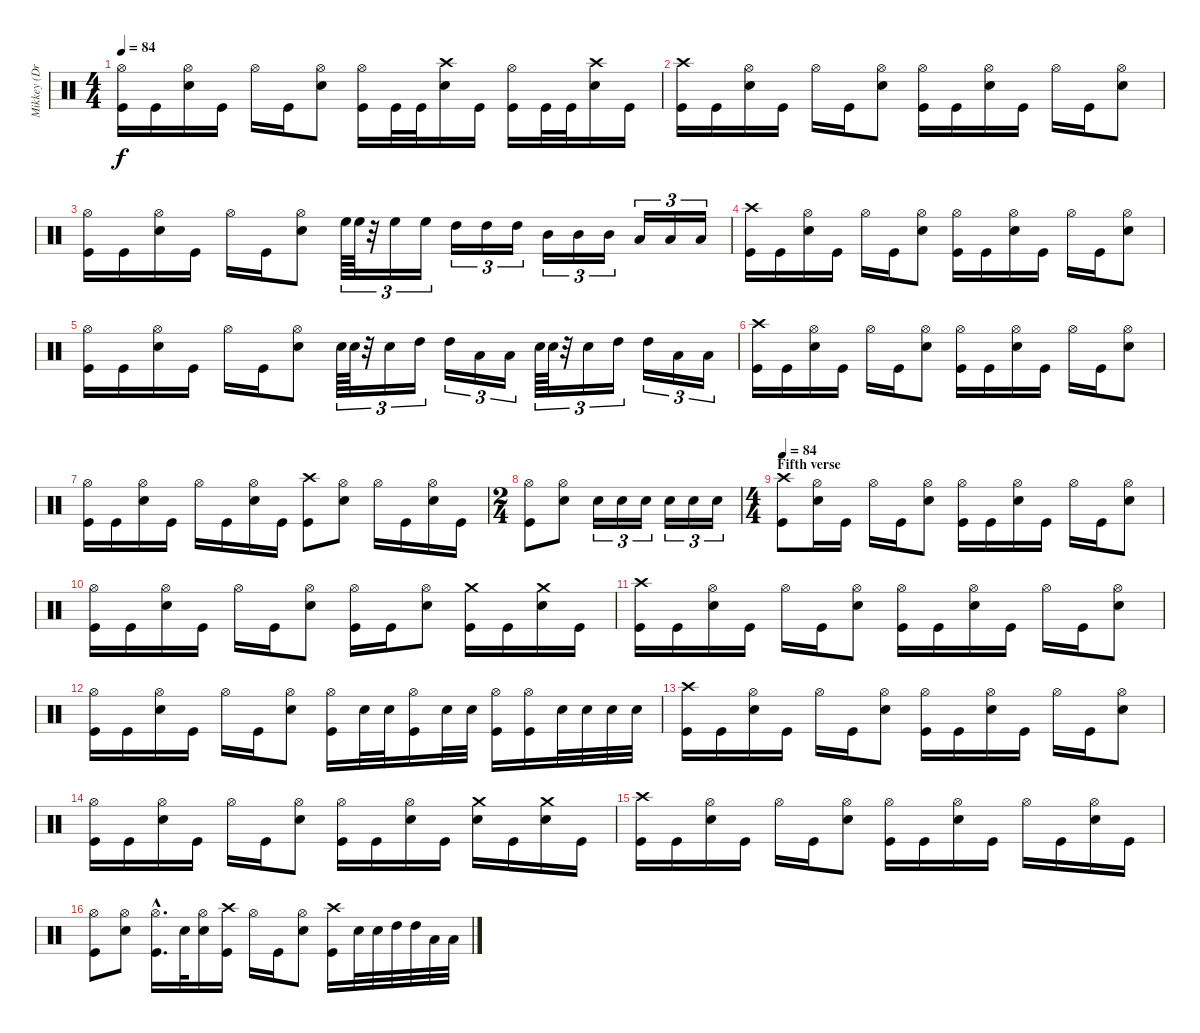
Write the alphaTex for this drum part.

\track ("Mikkey (Drums)" "Mikkey (Dr") {instrument percussion}
\staff {score}
\articulation defaults
\ts (4 4)
\tempo 84
\clef neutral
\ks c
("Hi-Hat (open)" "Kick (hit)").16{dy f} "Kick (hit)".16 ("Hi-Hat (open)" "Electric Snare (hit)").16 "Kick (hit)".16 "Hi-Hat (open)".16 "Kick (hit)".16 ("Hi-Hat (open)" "Electric Snare (hit)").8 ("Hi-Hat (open)" "Kick (hit)").16 "Kick (hit)".32 "Kick (hit)".32 ("Crash high (hit)" "Electric Snare (hit)").16 "Kick (hit)".16 ("Hi-Hat (open)" "Kick (hit)").16 "Kick (hit)".32 "Kick (hit)".32 ("Crash high (hit)" "Electric Snare (hit)").16 "Kick (hit)".16 |
("Crash high (hit)" "Kick (hit)").16 "Kick (hit)".16 ("Hi-Hat (open)" "Electric Snare (hit)").16 "Kick (hit)".16 "Hi-Hat (open)".16 "Kick (hit)".16 ("Hi-Hat (open)" "Electric Snare (hit)").8 ("Hi-Hat (open)" "Kick (hit)").16 "Kick (hit)".16 ("Hi-Hat (open)" "Electric Snare (hit)").16 "Kick (hit)".16 "Hi-Hat (open)".16 "Kick (hit)".16 ("Hi-Hat (open)" "Electric Snare (hit)").8 |
("Hi-Hat (open)" "Kick (hit)").16 "Kick (hit)".16 ("Hi-Hat (open)" "Electric Snare (hit)").16 "Kick (hit)".16 "Hi-Hat (open)".16 "Kick (hit)".16 ("Hi-Hat (open)" "Electric Snare (hit)").8 "High Floor Tom (hit)".64{tu (3 2)} "High Floor Tom (hit)".64{tu (3 2)} r.32{tu (3 2)} "High Floor Tom (hit)".16{tu (3 2)} "High Floor Tom (hit)".16{tu (3 2)} "High Tom (hit)".16{tu (3 2)} "High Tom (hit)".16{tu (3 2)} "High Tom (hit)".16{tu (3 2)} "Mid Tom (hit)".16{tu (3 2)} "Mid Tom (hit)".16{tu (3 2)} "Mid Tom (hit)".16{tu (3 2)} "Low Tom (hit)".16{tu (3 2)} "Low Tom (hit)".16{tu (3 2)} "Low Tom (hit)".16{tu (3 2)} |
("Crash high (hit)" "Kick (hit)").16 "Kick (hit)".16 ("Hi-Hat (open)" "Electric Snare (hit)").16 "Kick (hit)".16 "Hi-Hat (open)".16 "Kick (hit)".16 ("Hi-Hat (open)" "Electric Snare (hit)").8 ("Hi-Hat (open)" "Kick (hit)").16 "Kick (hit)".16 ("Hi-Hat (open)" "Electric Snare (hit)").16 "Kick (hit)".16 "Hi-Hat (open)".16 "Kick (hit)".16 ("Hi-Hat (open)" "Electric Snare (hit)").8 |
("Hi-Hat (open)" "Kick (hit)").16 "Kick (hit)".16 ("Hi-Hat (open)" "Electric Snare (hit)").16 "Kick (hit)".16 "Hi-Hat (open)".16 "Kick (hit)".16 ("Hi-Hat (open)" "Electric Snare (hit)").8 "Electric Snare (hit)".64{tu (3 2)} "Electric Snare (hit)".64{tu (3 2)} r.32{tu (3 2)} "Electric Snare (hit)".16{tu (3 2)} "High Tom (hit)".16{tu (3 2)} "High Tom (hit)".16{tu (3 2)} "Low Tom (hit)".16{tu (3 2)} "Low Tom (hit)".16{tu (3 2)} "Electric Snare (hit)".64{tu (3 2)} "Electric Snare (hit)".64{tu (3 2)} r.32{tu (3 2)} "Electric Snare (hit)".16{tu (3 2)} "High Tom (hit)".16{tu (3 2)} "High Tom (hit)".16{tu (3 2)} "Low Tom (hit)".16{tu (3 2)} "Low Tom (hit)".16{tu (3 2)} |
("Crash high (hit)" "Kick (hit)").16 "Kick (hit)".16 ("Hi-Hat (open)" "Electric Snare (hit)").16 "Kick (hit)".16 "Hi-Hat (open)".16 "Kick (hit)".16 ("Hi-Hat (open)" "Electric Snare (hit)").8 ("Hi-Hat (open)" "Kick (hit)").16 "Kick (hit)".16 ("Hi-Hat (open)" "Electric Snare (hit)").16 "Kick (hit)".16 "Hi-Hat (open)".16 "Kick (hit)".16 ("Hi-Hat (open)" "Electric Snare (hit)").8 |
("Hi-Hat (open)" "Kick (hit)").16 "Kick (hit)".16 ("Hi-Hat (open)" "Electric Snare (hit)").16 "Kick (hit)".16 "Hi-Hat (open)".16 "Kick (hit)".16 ("Hi-Hat (open)" "Electric Snare (hit)").16 "Kick (hit)".16 ("Crash high (hit)" "Kick (hit)").8 ("Hi-Hat (open)" "Electric Snare (hit)").8 "Hi-Hat (open)".16 "Kick (hit)".16 ("Hi-Hat (open)" "Electric Snare (hit)").16 "Kick (hit)".16 |
\ts (2 4)
("Hi-Hat (open)" "Kick (hit)").8 ("Hi-Hat (open)" "Electric Snare (hit)").8 "Electric Snare (hit)".16{tu (3 2)} "Electric Snare (hit)".16{tu (3 2)} "Electric Snare (hit)".16{tu (3 2)} "Electric Snare (hit)".16{tu (3 2)} "Electric Snare (hit)".16{tu (3 2)} "Electric Snare (hit)".16{tu (3 2)} |
\ts (4 4)
\section ("" "Fifth verse")
\tempo 84
("Crash high (hit)" "Kick (hit)").8 ("Hi-Hat (open)" "Electric Snare (hit)").16 "Kick (hit)".16 "Hi-Hat (open)".16 "Kick (hit)".16 ("Hi-Hat (open)" "Electric Snare (hit)").8 ("Hi-Hat (open)" "Kick (hit)").16 "Kick (hit)".16 ("Hi-Hat (open)" "Electric Snare (hit)").16 "Kick (hit)".16 "Hi-Hat (open)".16 "Kick (hit)".16 ("Hi-Hat (open)" "Electric Snare (hit)").8 |
("Hi-Hat (open)" "Kick (hit)").16 "Kick (hit)".16 ("Hi-Hat (open)" "Electric Snare (hit)").16 "Kick (hit)".16 "Hi-Hat (open)".16 "Kick (hit)".16 ("Hi-Hat (open)" "Electric Snare (hit)").8 ("Hi-Hat (open)" "Kick (hit)").16 "Kick (hit)".16 ("Hi-Hat (open)" "Electric Snare (hit)").8 ("Crash medium (hit)" "Kick (hit)").16 "Kick (hit)".16 ("Crash medium (hit)" "Electric Snare (hit)").16 "Kick (hit)".16 |
("Crash high (hit)" "Kick (hit)").16 "Kick (hit)".16 ("Hi-Hat (open)" "Electric Snare (hit)").16 "Kick (hit)".16 "Hi-Hat (open)".16 "Kick (hit)".16 ("Hi-Hat (open)" "Electric Snare (hit)").8 ("Hi-Hat (open)" "Kick (hit)").16 "Kick (hit)".16 ("Hi-Hat (open)" "Electric Snare (hit)").16 "Kick (hit)".16 "Hi-Hat (open)".16 "Kick (hit)".16 ("Hi-Hat (open)" "Electric Snare (hit)").8 |
("Hi-Hat (open)" "Kick (hit)").16 "Kick (hit)".16 ("Hi-Hat (open)" "Electric Snare (hit)").16 "Kick (hit)".16 "Hi-Hat (open)".16 "Kick (hit)".16 ("Hi-Hat (open)" "Electric Snare (hit)").8 ("Hi-Hat (open)" "Kick (hit)").16 "Electric Snare (hit)".32 "Electric Snare (hit)".32 ("Hi-Hat (open)" "Kick (hit)").16 "Electric Snare (hit)".32 "Electric Snare (hit)".32 ("Hi-Hat (open)" "Kick (hit)").16 ("Hi-Hat (open)" "Kick (hit)").16 "Electric Snare (hit)".32 "Electric Snare (hit)".32 "Electric Snare (hit)".32 "Electric Snare (hit)".32 |
("Crash high (hit)" "Kick (hit)").16 "Kick (hit)".16 ("Hi-Hat (open)" "Electric Snare (hit)").16 "Kick (hit)".16 "Hi-Hat (open)".16 "Kick (hit)".16 ("Hi-Hat (open)" "Electric Snare (hit)").8 ("Hi-Hat (open)" "Kick (hit)").16 "Kick (hit)".16 ("Hi-Hat (open)" "Electric Snare (hit)").16 "Kick (hit)".16 "Hi-Hat (open)".16 "Kick (hit)".16 ("Hi-Hat (open)" "Electric Snare (hit)").8 |
("Hi-Hat (open)" "Kick (hit)").16 "Kick (hit)".16 ("Hi-Hat (open)" "Electric Snare (hit)").16 "Kick (hit)".16 "Hi-Hat (open)".16 "Kick (hit)".16 ("Hi-Hat (open)" "Electric Snare (hit)").8 ("Hi-Hat (open)" "Kick (hit)").16 "Kick (hit)".16 ("Hi-Hat (open)" "Electric Snare (hit)").16 "Kick (hit)".16 ("Crash medium (hit)" "Electric Snare (hit)").16 "Kick (hit)".16 ("Crash medium (hit)" "Electric Snare (hit)").16 "Kick (hit)".16 |
("Crash high (hit)" "Kick (hit)").16 "Kick (hit)".16 ("Hi-Hat (open)" "Electric Snare (hit)").16 "Kick (hit)".16 "Hi-Hat (open)".16 "Kick (hit)".16 ("Hi-Hat (open)" "Electric Snare (hit)").8 ("Hi-Hat (open)" "Kick (hit)").16 "Kick (hit)".16 ("Hi-Hat (open)" "Electric Snare (hit)").16 "Kick (hit)".16 "Hi-Hat (open)".16 "Kick (hit)".16 ("Hi-Hat (open)" "Electric Snare (hit)").16 "Kick (hit)".16 |
("Hi-Hat (open)" "Kick (hit)").8 ("Hi-Hat (open)" "Electric Snare (hit)").8 ("Hi-Hat (open)"{hac} "Kick (hit)"{hac}).16{d} "Electric Snare (hit)".32 ("Hi-Hat (open)" "Electric Snare (hit)").16 ("Crash high (hit)" "Kick (hit)").16 "Hi-Hat (open)".16 "Kick (hit)".16 ("Hi-Hat (open)" "Electric Snare (hit)").8 ("Crash high (hit)" "Kick (hit)").16 "Electric Snare (hit)".32 "Electric Snare (hit)".32 "High Tom (hit)".32 "High Tom (hit)".32 "Low Tom (hit)".32 "Low Tom (hit)".32
